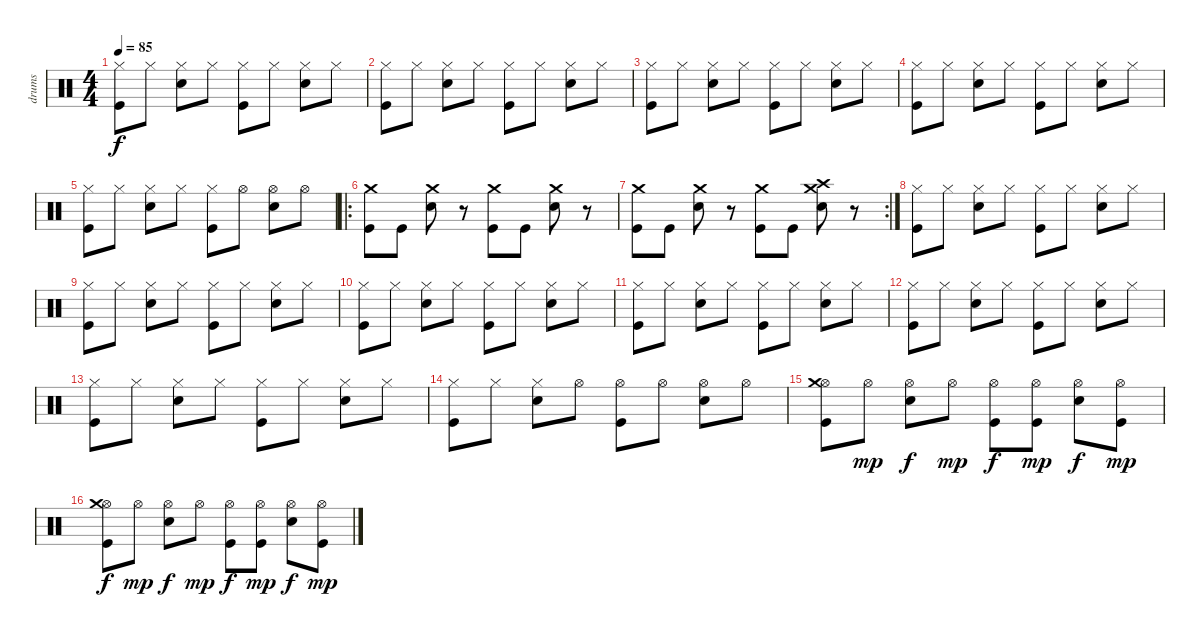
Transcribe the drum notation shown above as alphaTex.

\track ("drums" "drums") {instrument percussion}
\staff {score}
\articulation defaults
\ts (4 4)
\tempo 85
\clef neutral
\ks c
("Hi-Hat (closed)" "Kick (hit)").8{dy f} "Hi-Hat (closed)".8 ("Hi-Hat (closed)" "Snare (hit) 2").8 "Hi-Hat (closed)".8 ("Hi-Hat (closed)" "Kick (hit)").8 "Hi-Hat (closed)".8 ("Hi-Hat (closed)" "Snare (hit) 2").8 "Hi-Hat (closed)".8 |
("Hi-Hat (closed)" "Kick (hit)").8 "Hi-Hat (closed)".8 ("Hi-Hat (closed)" "Snare (hit) 2").8 "Hi-Hat (closed)".8 ("Hi-Hat (closed)" "Kick (hit)").8 "Hi-Hat (closed)".8 ("Hi-Hat (closed)" "Snare (hit) 2").8 "Hi-Hat (closed)".8 |
("Hi-Hat (closed)" "Kick (hit)").8 "Hi-Hat (closed)".8 ("Hi-Hat (closed)" "Snare (hit) 2").8 "Hi-Hat (closed)".8 ("Hi-Hat (closed)" "Kick (hit)").8 "Hi-Hat (closed)".8 ("Hi-Hat (closed)" "Snare (hit) 2").8 "Hi-Hat (closed)".8 |
("Hi-Hat (closed)" "Kick (hit)").8 "Hi-Hat (closed)".8 ("Hi-Hat (closed)" "Snare (hit) 2").8 "Hi-Hat (closed)".8 ("Hi-Hat (closed)" "Kick (hit)").8 "Hi-Hat (closed)".8 ("Hi-Hat (closed)" "Snare (hit) 2").8 "Hi-Hat (closed)".8 |
("Hi-Hat (closed)" "Kick (hit)").8 "Hi-Hat (closed)".8 ("Hi-Hat (closed)" "Snare (hit) 2").8 "Hi-Hat (closed)".8 ("Hi-Hat (closed)" "Kick (hit)").8 "Hi-Hat (open)".8 ("Hi-Hat (open)" "Snare (hit) 2").8 "Hi-Hat (open)".8 |
\ro
("Crash medium (hit)" "Kick (hit)").8 "Kick (hit)".8 ("Crash medium (hit)" "Snare (hit) 2").8 r.8 ("Crash medium (hit)" "Kick (hit)").8 "Kick (hit)".8 ("Crash medium (hit)" "Snare (hit) 2").8 r.8 |
\rc 2
("Crash medium (hit)" "Kick (hit)").8 "Kick (hit)".8 ("Crash medium (hit)" "Snare (hit) 2").8 r.8 ("Crash medium (hit)" "Kick (hit)").8 "Kick (hit)".8 ("Crash high (hit)" "Crash medium (hit)" "Snare (hit) 2").8 r.8 |
("Hi-Hat (closed)" "Kick (hit)").8 "Hi-Hat (closed)".8 ("Hi-Hat (closed)" "Snare (hit) 2").8 "Hi-Hat (closed)".8 ("Hi-Hat (closed)" "Kick (hit)").8 "Hi-Hat (closed)".8 ("Hi-Hat (closed)" "Snare (hit) 2").8 "Hi-Hat (closed)".8 |
("Hi-Hat (closed)" "Kick (hit)").8 "Hi-Hat (closed)".8 ("Hi-Hat (closed)" "Snare (hit) 2").8 "Hi-Hat (closed)".8 ("Hi-Hat (closed)" "Kick (hit)").8 "Hi-Hat (closed)".8 ("Hi-Hat (closed)" "Snare (hit) 2").8 "Hi-Hat (closed)".8 |
("Hi-Hat (closed)" "Kick (hit)").8 "Hi-Hat (closed)".8 ("Hi-Hat (closed)" "Snare (hit) 2").8 "Hi-Hat (closed)".8 ("Hi-Hat (closed)" "Kick (hit)").8 "Hi-Hat (closed)".8 ("Hi-Hat (closed)" "Snare (hit) 2").8 "Hi-Hat (closed)".8 |
("Hi-Hat (closed)" "Kick (hit)").8 "Hi-Hat (closed)".8 ("Hi-Hat (closed)" "Snare (hit) 2").8 "Hi-Hat (closed)".8 ("Hi-Hat (closed)" "Kick (hit)").8 "Hi-Hat (closed)".8 ("Hi-Hat (closed)" "Snare (hit) 2").8 "Hi-Hat (closed)".8 |
("Hi-Hat (closed)" "Kick (hit)").8 "Hi-Hat (closed)".8 ("Hi-Hat (closed)" "Snare (hit) 2").8 "Hi-Hat (closed)".8 ("Hi-Hat (closed)" "Kick (hit)").8 "Hi-Hat (closed)".8 ("Hi-Hat (closed)" "Snare (hit) 2").8 "Hi-Hat (closed)".8 |
("Hi-Hat (closed)" "Kick (hit)").8 "Hi-Hat (closed)".8 ("Hi-Hat (closed)" "Snare (hit) 2").8 "Hi-Hat (closed)".8 ("Hi-Hat (closed)" "Kick (hit)").8 "Hi-Hat (closed)".8 ("Hi-Hat (closed)" "Snare (hit) 2").8 "Hi-Hat (closed)".8 |
("Hi-Hat (closed)" "Kick (hit)").8 "Hi-Hat (closed)".8 ("Hi-Hat (closed)" "Snare (hit) 2").8 "Hi-Hat (open)".8 ("Hi-Hat (open)" "Kick (hit)").8 "Hi-Hat (open)".8 ("Hi-Hat (open)" "Snare (hit) 2").8 "Hi-Hat (open)".8 |
("Hi-Hat (open)" "Kick (hit)" "Crash medium (hit)").8 "Hi-Hat (open)".8{dy mp} ("Hi-Hat (open)" "Snare (hit) 2").8{dy f} "Hi-Hat (open)".8{dy mp} ("Hi-Hat (open)" "Kick (hit)").8{dy f} ("Hi-Hat (open)" "Kick (hit)").8{dy mp} ("Hi-Hat (open)" "Snare (hit) 2").8{dy f} ("Hi-Hat (open)" "Kick (hit)").8{dy mp} |
("Hi-Hat (open)" "Kick (hit)" "Crash medium (hit)").8{dy f} "Hi-Hat (open)".8{dy mp} ("Hi-Hat (open)" "Snare (hit) 2").8{dy f} "Hi-Hat (open)".8{dy mp} ("Hi-Hat (open)" "Kick (hit)").8{dy f} ("Hi-Hat (open)" "Kick (hit)").8{dy mp} ("Hi-Hat (open)" "Snare (hit) 2").8{dy f} ("Hi-Hat (open)" "Kick (hit)").8{dy mp}
